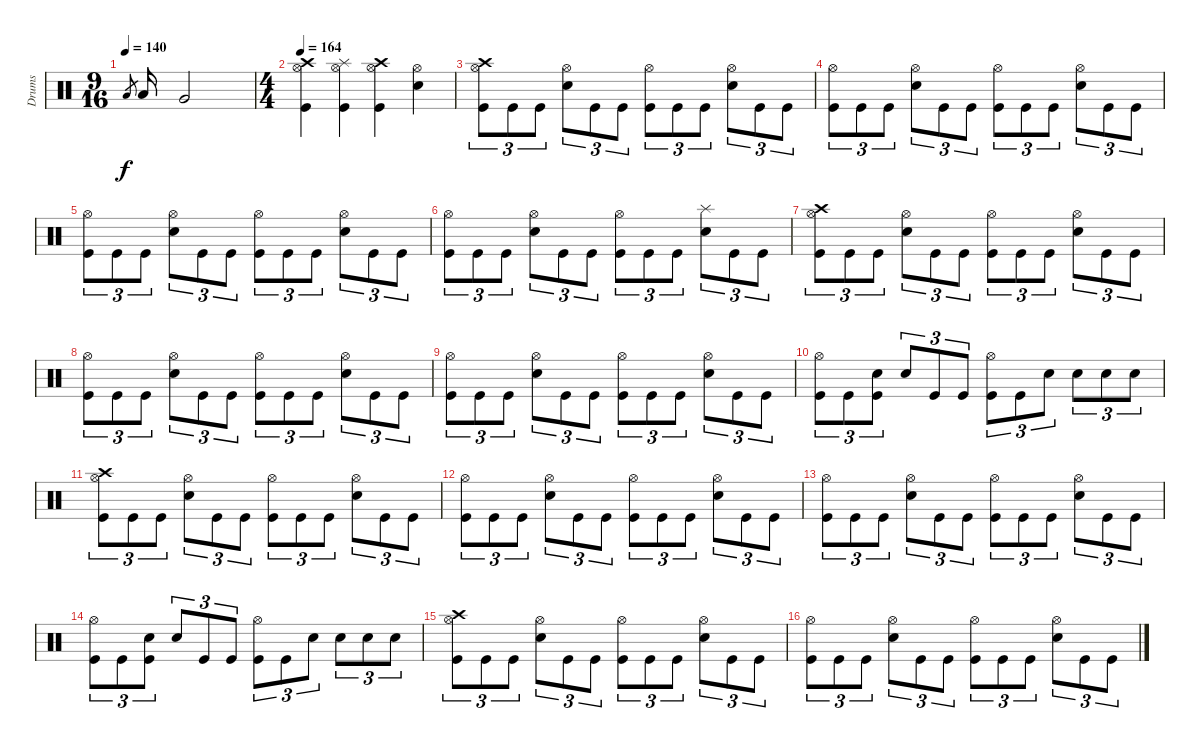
\track ("Drums" "Drums") {instrument percussion}
\staff {score}
\articulation defaults
\ts (9 16)
\tempo 140
\tempo 164
\tempo 140
\clef neutral
\ks c "Low Tom (hit)".8{gr dy f} "Low Tom (hit)".16 "Very Low Tom (hit)".2
|
\ts (4 4)
\tempo 164
("Crash high (hit)" "Hi-Hat (open)" "Kick (hit)").4 ("Splash (hit)" "Hi-Hat (open)" "Kick (hit)").4 ("Crash high (hit)" "Hi-Hat (open)" "Kick (hit)").4 ("Hi-Hat (open)" "Electric Snare (hit)").4 |
("Crash high (hit)" "Hi-Hat (open)" "Kick (hit)").8{tu (3 2)} "Kick (hit)".8{tu (3 2)} "Kick (hit)".8{tu (3 2)} ("Hi-Hat (open)" "Electric Snare (hit)").8{tu (3 2)} "Kick (hit)".8{tu (3 2)} "Kick (hit)".8{tu (3 2)} ("Hi-Hat (open)" "Kick (hit)").8{tu (3 2)} "Kick (hit)".8{tu (3 2)} "Kick (hit)".8{tu (3 2)} ("Hi-Hat (open)" "Electric Snare (hit)").8{tu (3 2)} "Kick (hit)".8{tu (3 2)} "Kick (hit)".8{tu (3 2)} |
("Hi-Hat (open)" "Kick (hit)").8{tu (3 2)} "Kick (hit)".8{tu (3 2)} "Kick (hit)".8{tu (3 2)} ("Hi-Hat (open)" "Electric Snare (hit)").8{tu (3 2)} "Kick (hit)".8{tu (3 2)} "Kick (hit)".8{tu (3 2)} ("Hi-Hat (open)" "Kick (hit)").8{tu (3 2)} "Kick (hit)".8{tu (3 2)} "Kick (hit)".8{tu (3 2)} ("Hi-Hat (open)" "Electric Snare (hit)").8{tu (3 2)} "Kick (hit)".8{tu (3 2)} "Kick (hit)".8{tu (3 2)} |
("Hi-Hat (open)" "Kick (hit)").8{tu (3 2)} "Kick (hit)".8{tu (3 2)} "Kick (hit)".8{tu (3 2)} ("Hi-Hat (open)" "Electric Snare (hit)").8{tu (3 2)} "Kick (hit)".8{tu (3 2)} "Kick (hit)".8{tu (3 2)} ("Hi-Hat (open)" "Kick (hit)").8{tu (3 2)} "Kick (hit)".8{tu (3 2)} "Kick (hit)".8{tu (3 2)} ("Hi-Hat (open)" "Electric Snare (hit)").8{tu (3 2)} "Kick (hit)".8{tu (3 2)} "Kick (hit)".8{tu (3 2)} |
("Hi-Hat (open)" "Kick (hit)").8{tu (3 2)} "Kick (hit)".8{tu (3 2)} "Kick (hit)".8{tu (3 2)} ("Hi-Hat (open)" "Electric Snare (hit)").8{tu (3 2)} "Kick (hit)".8{tu (3 2)} "Kick (hit)".8{tu (3 2)} ("Hi-Hat (open)" "Kick (hit)").8{tu (3 2)} "Kick (hit)".8{tu (3 2)} "Kick (hit)".8{tu (3 2)} ("Splash (hit)" "Electric Snare (hit)").8{tu (3 2)} "Kick (hit)".8{tu (3 2)} "Kick (hit)".8{tu (3 2)} |
("Crash high (hit)" "Hi-Hat (open)" "Kick (hit)").8{tu (3 2)} "Kick (hit)".8{tu (3 2)} "Kick (hit)".8{tu (3 2)} ("Hi-Hat (open)" "Electric Snare (hit)").8{tu (3 2)} "Kick (hit)".8{tu (3 2)} "Kick (hit)".8{tu (3 2)} ("Hi-Hat (open)" "Kick (hit)").8{tu (3 2)} "Kick (hit)".8{tu (3 2)} "Kick (hit)".8{tu (3 2)} ("Hi-Hat (open)" "Electric Snare (hit)").8{tu (3 2)} "Kick (hit)".8{tu (3 2)} "Kick (hit)".8{tu (3 2)} |
("Hi-Hat (open)" "Kick (hit)").8{tu (3 2)} "Kick (hit)".8{tu (3 2)} "Kick (hit)".8{tu (3 2)} ("Hi-Hat (open)" "Electric Snare (hit)").8{tu (3 2)} "Kick (hit)".8{tu (3 2)} "Kick (hit)".8{tu (3 2)} ("Hi-Hat (open)" "Kick (hit)").8{tu (3 2)} "Kick (hit)".8{tu (3 2)} "Kick (hit)".8{tu (3 2)} ("Hi-Hat (open)" "Electric Snare (hit)").8{tu (3 2)} "Kick (hit)".8{tu (3 2)} "Kick (hit)".8{tu (3 2)} |
("Hi-Hat (open)" "Kick (hit)").8{tu (3 2)} "Kick (hit)".8{tu (3 2)} "Kick (hit)".8{tu (3 2)} ("Hi-Hat (open)" "Electric Snare (hit)").8{tu (3 2)} "Kick (hit)".8{tu (3 2)} "Kick (hit)".8{tu (3 2)} ("Hi-Hat (open)" "Kick (hit)").8{tu (3 2)} "Kick (hit)".8{tu (3 2)} "Kick (hit)".8{tu (3 2)} ("Hi-Hat (open)" "Electric Snare (hit)").8{tu (3 2)} "Kick (hit)".8{tu (3 2)} "Kick (hit)".8{tu (3 2)} |
("Hi-Hat (open)" "Kick (hit)").8{tu (3 2)} "Kick (hit)".8{tu (3 2)} ("Electric Snare (hit)" "Kick (hit)").8{tu (3 2)} "Electric Snare (hit)".8{tu (3 2)} "Kick (hit)".8{tu (3 2)} "Kick (hit)".8{tu (3 2)} ("Hi-Hat (open)" "Kick (hit)").8{tu (3 2)} "Kick (hit)".8{tu (3 2)} "Electric Snare (hit)".8{tu (3 2)} "Electric Snare (hit)".8{tu (3 2)} "Electric Snare (hit)".8{tu (3 2)} "Electric Snare (hit)".8{tu (3 2)} |
("Crash high (hit)" "Hi-Hat (open)" "Kick (hit)").8{tu (3 2)} "Kick (hit)".8{tu (3 2)} "Kick (hit)".8{tu (3 2)} ("Hi-Hat (open)" "Electric Snare (hit)").8{tu (3 2)} "Kick (hit)".8{tu (3 2)} "Kick (hit)".8{tu (3 2)} ("Hi-Hat (open)" "Kick (hit)").8{tu (3 2)} "Kick (hit)".8{tu (3 2)} "Kick (hit)".8{tu (3 2)} ("Hi-Hat (open)" "Electric Snare (hit)").8{tu (3 2)} "Kick (hit)".8{tu (3 2)} "Kick (hit)".8{tu (3 2)} |
("Hi-Hat (open)" "Kick (hit)").8{tu (3 2)} "Kick (hit)".8{tu (3 2)} "Kick (hit)".8{tu (3 2)} ("Hi-Hat (open)" "Electric Snare (hit)").8{tu (3 2)} "Kick (hit)".8{tu (3 2)} "Kick (hit)".8{tu (3 2)} ("Hi-Hat (open)" "Kick (hit)").8{tu (3 2)} "Kick (hit)".8{tu (3 2)} "Kick (hit)".8{tu (3 2)} ("Hi-Hat (open)" "Electric Snare (hit)").8{tu (3 2)} "Kick (hit)".8{tu (3 2)} "Kick (hit)".8{tu (3 2)} |
("Hi-Hat (open)" "Kick (hit)").8{tu (3 2)} "Kick (hit)".8{tu (3 2)} "Kick (hit)".8{tu (3 2)} ("Hi-Hat (open)" "Electric Snare (hit)").8{tu (3 2)} "Kick (hit)".8{tu (3 2)} "Kick (hit)".8{tu (3 2)} ("Hi-Hat (open)" "Kick (hit)").8{tu (3 2)} "Kick (hit)".8{tu (3 2)} "Kick (hit)".8{tu (3 2)} ("Hi-Hat (open)" "Electric Snare (hit)").8{tu (3 2)} "Kick (hit)".8{tu (3 2)} "Kick (hit)".8{tu (3 2)} |
("Hi-Hat (open)" "Kick (hit)").8{tu (3 2)} "Kick (hit)".8{tu (3 2)} ("Electric Snare (hit)" "Kick (hit)").8{tu (3 2)} "Electric Snare (hit)".8{tu (3 2)} "Kick (hit)".8{tu (3 2)} "Kick (hit)".8{tu (3 2)} ("Hi-Hat (open)" "Kick (hit)").8{tu (3 2)} "Kick (hit)".8{tu (3 2)} "Electric Snare (hit)".8{tu (3 2)} "Electric Snare (hit)".8{tu (3 2)} "Electric Snare (hit)".8{tu (3 2)} "Electric Snare (hit)".8{tu (3 2)} |
("Crash high (hit)" "Hi-Hat (open)" "Kick (hit)").8{tu (3 2)} "Kick (hit)".8{tu (3 2)} "Kick (hit)".8{tu (3 2)} ("Hi-Hat (open)" "Electric Snare (hit)").8{tu (3 2)} "Kick (hit)".8{tu (3 2)} "Kick (hit)".8{tu (3 2)} ("Hi-Hat (open)" "Kick (hit)").8{tu (3 2)} "Kick (hit)".8{tu (3 2)} "Kick (hit)".8{tu (3 2)} ("Hi-Hat (open)" "Electric Snare (hit)").8{tu (3 2)} "Kick (hit)".8{tu (3 2)} "Kick (hit)".8{tu (3 2)} |
("Hi-Hat (open)" "Kick (hit)").8{tu (3 2)} "Kick (hit)".8{tu (3 2)} "Kick (hit)".8{tu (3 2)} ("Hi-Hat (open)" "Electric Snare (hit)").8{tu (3 2)} "Kick (hit)".8{tu (3 2)} "Kick (hit)".8{tu (3 2)} ("Hi-Hat (open)" "Kick (hit)").8{tu (3 2)} "Kick (hit)".8{tu (3 2)} "Kick (hit)".8{tu (3 2)} ("Hi-Hat (open)" "Electric Snare (hit)").8{tu (3 2)} "Kick (hit)".8{tu (3 2)} "Kick (hit)".8{tu (3 2)}
